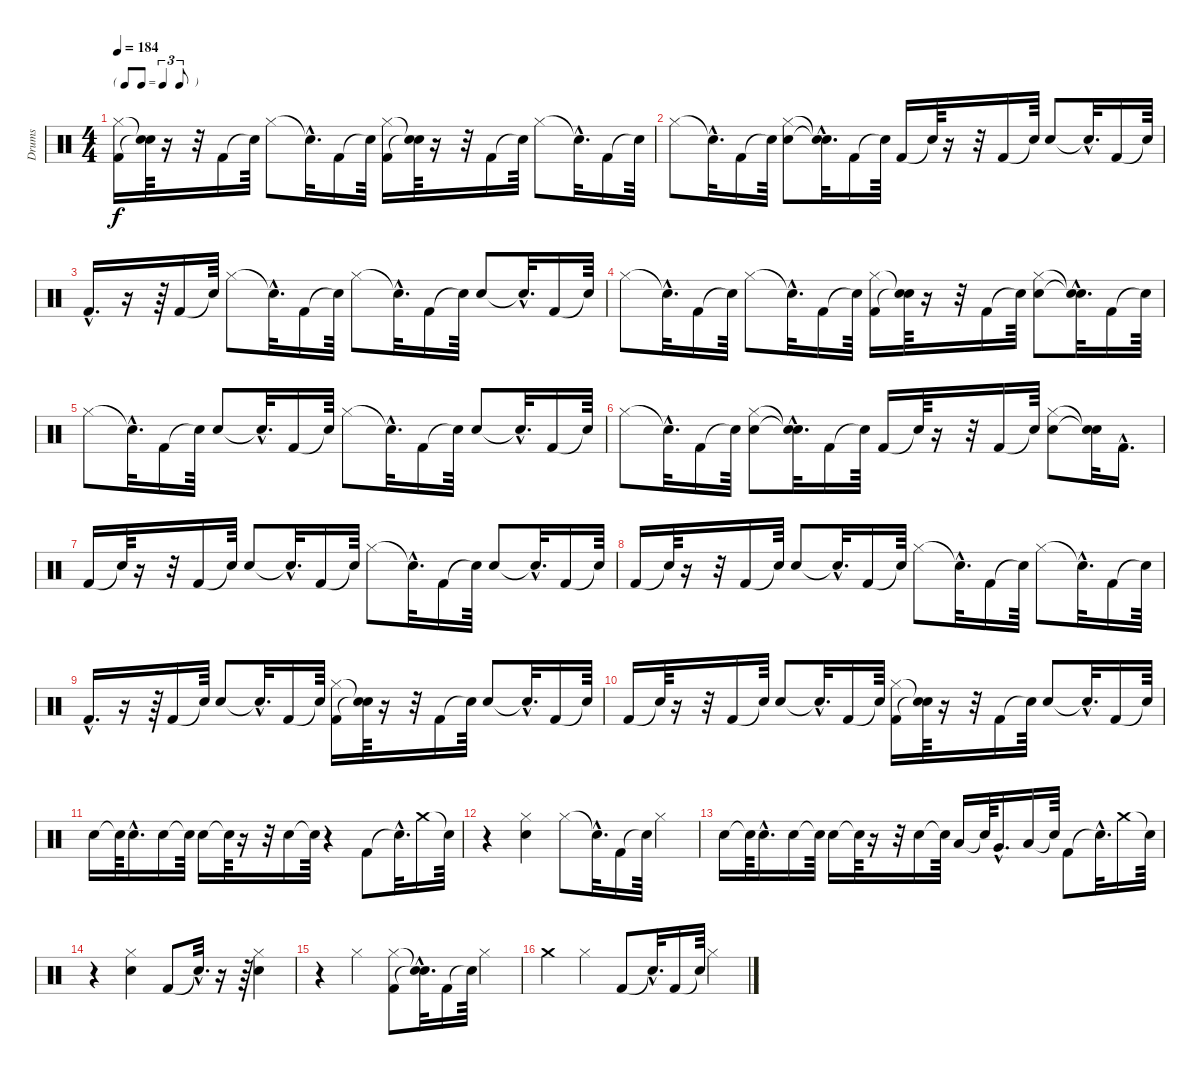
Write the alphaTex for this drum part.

\track ("Drums" "Drums") {instrument percussion}
\staff {score}
\articulation defaults
\ts (4 4)
\tf triplet8th
\tempo 184
\clef neutral
\ks c
("Hi-Hat (closed)" "Kick (hit) 2").16{dy f} ("Snare (hit)"{t} "Snare (hit)"{t}).64 r.16 r.32 "Kick (hit) 2".16 "Snare (hit)"{t}.64 "Hi-Hat (closed)".8 "Snare (hit)"{hac t}.32{d} "Kick (hit) 2".16 "Snare (hit)"{t}.64 ("Hi-Hat (closed)" "Kick (hit) 2").16 ("Snare (hit)"{t} "Snare (hit)"{t}).64 r.16 r.32 "Kick (hit) 2".16 "Snare (hit)"{t}.64 "Hi-Hat (closed)".8 "Snare (hit)"{hac t}.32{d} "Kick (hit) 2".16 "Snare (hit)"{t}.64 |
"Hi-Hat (closed)".8 "Snare (hit)"{hac t}.32{d} "Kick (hit) 2".16 "Snare (hit)"{t}.64 ("Hi-Hat (closed)" "Snare (hit) 2").8 ("Snare (hit)"{hac t} "Snare (hit)"{hac t}).32{d} "Kick (hit) 2".16 "Snare (hit)"{t}.64 "Kick (hit) 2".16 "Snare (hit)"{t}.64 r.16 r.32 "Kick (hit) 2".16 "Snare (hit)"{t}.64 "Snare (hit) 2".8 "Snare (hit)"{hac t}.32{d} "Kick (hit) 2".16 "Snare (hit)"{t}.64 |
"Kick (hit) 2"{hac}.16{d} r.16 r.64 "Kick (hit) 2".16 "Snare (hit)"{t}.64 "Hi-Hat (closed)".8 "Snare (hit)"{hac t}.32{d} "Kick (hit) 2".16 "Snare (hit)"{t}.64 "Hi-Hat (closed)".8 "Snare (hit)"{hac t}.32{d} "Kick (hit) 2".16 "Snare (hit)"{t}.64 "Snare (hit) 2".8 "Snare (hit)"{hac t}.32{d} "Kick (hit) 2".16 "Snare (hit)"{t}.64 |
"Hi-Hat (closed)".8 "Snare (hit)"{hac t}.32{d} "Kick (hit) 2".16 "Snare (hit)"{t}.64 "Hi-Hat (closed)".8 "Snare (hit)"{hac t}.32{d} "Kick (hit) 2".16 "Snare (hit)"{t}.64 ("Hi-Hat (closed)" "Kick (hit) 2").16 ("Snare (hit)"{t} "Snare (hit)"{t}).64 r.16 r.32 "Kick (hit) 2".16 "Snare (hit)"{t}.64 ("Hi-Hat (closed)" "Snare (hit) 2").8 ("Snare (hit)"{hac t} "Snare (hit)"{hac t}).32{d} "Kick (hit) 2".16 "Snare (hit)"{t}.64 |
"Hi-Hat (closed)".8 "Snare (hit)"{hac t}.32{d} "Kick (hit) 2".16 "Snare (hit)"{t}.64 "Snare (hit) 2".8 "Snare (hit)"{hac t}.32{d} "Kick (hit) 2".16 "Snare (hit)"{t}.64 "Hi-Hat (closed)".8 "Snare (hit)"{hac t}.32{d} "Kick (hit) 2".16 "Snare (hit)"{t}.64 "Snare (hit) 2".8 "Snare (hit)"{hac t}.32{d} "Kick (hit) 2".16 "Snare (hit)"{t}.64 |
"Hi-Hat (closed)".8 "Snare (hit)"{hac t}.32{d} "Kick (hit) 2".16 "Snare (hit)"{t}.64 ("Hi-Hat (closed)" "Snare (hit) 2").8 ("Snare (hit)"{hac t} "Snare (hit)"{hac t}).32{d} "Kick (hit) 2".16 "Snare (hit)"{t}.64 "Kick (hit) 2".16 "Snare (hit)"{t}.64 r.16 r.32 "Kick (hit) 2".16 "Snare (hit)"{t}.64 ("Hi-Hat (closed)" "Snare (hit) 2").8 ("Snare (hit)"{t} "Snare (hit)"{t}).32 "Kick (hit) 2"{hac}.16{d} |
"Kick (hit) 2".16 "Snare (hit)"{t}.64 r.16 r.32 "Kick (hit) 2".16 "Snare (hit)"{t}.64 "Snare (hit) 2".8 "Snare (hit)"{hac t}.32{d} "Kick (hit) 2".16 "Snare (hit)"{t}.64 "Hi-Hat (closed)".8 "Snare (hit)"{hac t}.32{d} "Kick (hit) 2".16 "Snare (hit)"{t}.64 "Snare (hit) 2".8 "Snare (hit)"{hac t}.32{d} "Kick (hit) 2".16 "Snare (hit)"{t}.64 |
"Kick (hit) 2".16 "Snare (hit)"{t}.64 r.16 r.32 "Kick (hit) 2".16 "Snare (hit)"{t}.64 "Snare (hit) 2".8 "Snare (hit)"{hac t}.32{d} "Kick (hit) 2".16 "Snare (hit)"{t}.64 "Hi-Hat (closed)".8 "Snare (hit)"{hac t}.32{d} "Kick (hit) 2".16 "Snare (hit)"{t}.64 "Hi-Hat (closed)".8 "Snare (hit)"{hac t}.32{d} "Kick (hit) 2".16 "Snare (hit)"{t}.64 |
"Kick (hit) 2"{hac}.16{d} r.16 r.64 "Kick (hit) 2".16 "Snare (hit)"{t}.64 "Snare (hit) 2".8 "Snare (hit)"{hac t}.32{d} "Kick (hit) 2".16 "Snare (hit)"{t}.64 ("Hi-Hat (closed)" "Kick (hit) 2").16 ("Snare (hit)"{t} "Snare (hit)"{t}).64 r.16 r.32 "Kick (hit) 2".16 "Snare (hit)"{t}.64 "Snare (hit) 2".8 "Snare (hit)"{hac t}.32{d} "Kick (hit) 2".16 "Snare (hit)"{t}.64 |
"Kick (hit) 2".16 "Snare (hit)"{t}.64 r.16 r.32 "Kick (hit) 2".16 "Snare (hit)"{t}.64 "Snare (hit) 2".8 "Snare (hit)"{hac t}.32{d} "Kick (hit) 2".16 "Snare (hit)"{t}.64 ("Hi-Hat (closed)" "Kick (hit) 2").16 ("Snare (hit)"{t} "Snare (hit)"{t}).64 r.16 r.32 "Kick (hit) 2".16 "Snare (hit)"{t}.64 "Snare (hit) 2".8 "Snare (hit)"{hac t}.32{d} "Kick (hit) 2".16 "Snare (hit)"{t}.64 |
"Snare (hit) 2".16 "Snare (hit)"{t}.64 "Snare (hit) 2"{hac}.16{d} "Snare (hit) 2".16 "Snare (hit)"{t}.64 "Snare (hit) 2".16 "Snare (hit)"{t}.64 r.16 r.32 "Snare (hit) 2".16 "Snare (hit)"{t}.64 r.4 "Kick (hit) 2".8 "Snare (hit)"{hac t}.32{d} "Crash medium (hit)".16 "Snare (hit)"{t}.64 |
r.4 ("Hi-Hat (closed)" "Snare (hit) 2").4 "Hi-Hat (closed)".8 "Snare (hit)"{hac t}.32{d} "Kick (hit) 2".16 "Snare (hit)"{t}.64 "Hi-Hat (closed)".4 |
"Snare (hit) 2".16 "Snare (hit)"{t}.64 "Snare (hit) 2"{hac}.16{d} "Snare (hit) 2".16 "Snare (hit)"{t}.64 "Snare (hit) 2".16 "Snare (hit)"{t}.64 r.16 r.32 "Snare (hit) 2".16 "Snare (hit)"{t}.64 "Low Tom (hit)".16 "Snare (hit)"{t}.64 "Very Low Tom (hit)"{hac}.16{d} "Low Floor Tom (hit)".16 "Snare (hit)"{t}.64 "Kick (hit) 2".8 "Snare (hit)"{hac t}.32{d} "Crash medium (hit)".16 "Snare (hit)"{t}.64 |
r.4 ("Hi-Hat (closed)" "Snare (hit) 2").4 "Kick (hit) 2".8 "Snare (hit)"{hac t}.32{d} r.16 r.64 ("Hi-Hat (closed)" "Snare (hit) 2").4 |
r.4 "Hi-Hat (closed)".4 ("Hi-Hat (closed)" "Kick (hit) 2").8 ("Snare (hit)"{hac t} "Snare (hit)"{hac t}).32{d} "Kick (hit) 2".16 "Snare (hit)"{t}.64 "Hi-Hat (closed)".4 |
"Crash medium (hit)".4 "Hi-Hat (closed)".4 "Kick (hit) 2".8 "Snare (hit)"{hac t}.32{d} "Kick (hit) 2".16 "Snare (hit)"{t}.64 "Hi-Hat (closed)".4
